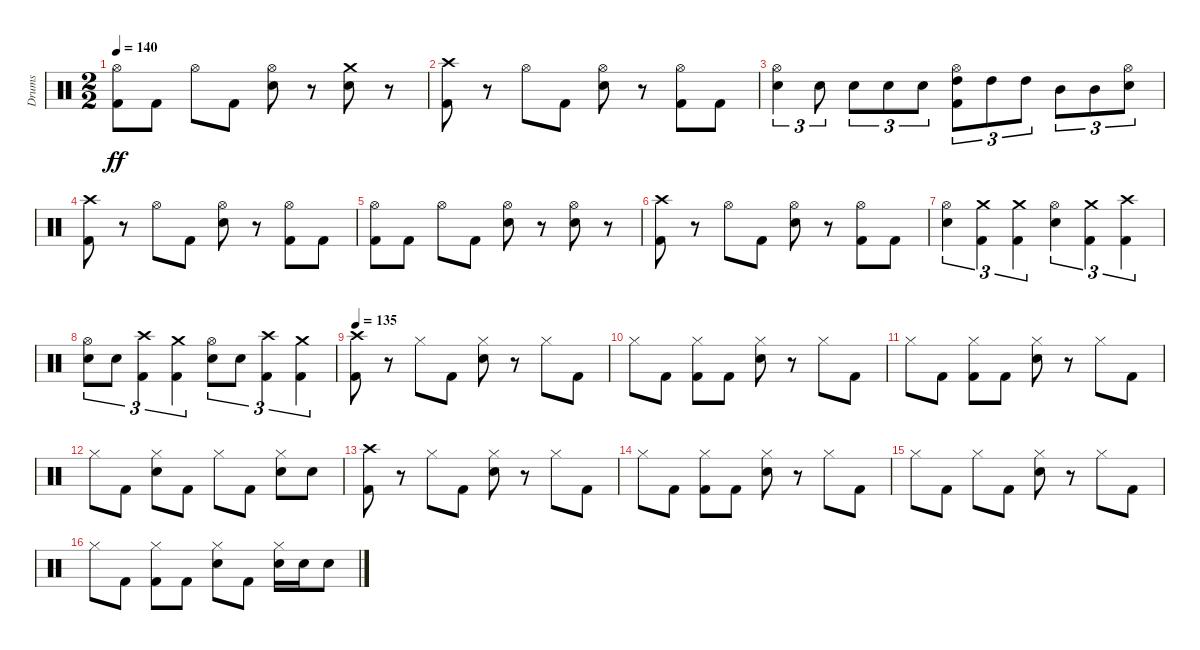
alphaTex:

\track ("Drums" "Drums") {instrument percussion}
\staff {score}
\articulation defaults
\ts (2 2)
\tempo 140
\clef neutral
\ks c
("Hi-Hat (open)" "Kick (hit) 2").8{dy ff} "Kick (hit) 2".8 "Hi-Hat (open)".8 "Kick (hit) 2".8 ("Hi-Hat (open)" "Snare (hit) 2").8 r.8 ("Crash medium (hit)" "Snare (hit) 2").8 r.8 |
("Crash high (hit)" "Kick (hit) 2").8 r.8 "Hi-Hat (open)".8 "Kick (hit) 2".8 ("Hi-Hat (open)" "Snare (hit) 2").8 r.8 ("Hi-Hat (open)" "Kick (hit) 2").8 "Kick (hit) 2".8 |
("Hi-Hat (open)" "Snare (hit) 2").4{tu (3 2)} "Snare (hit) 2".8{tu (3 2)} "Snare (hit) 2".8{tu (3 2)} "Snare (hit) 2".8{tu (3 2)} "Snare (hit) 2".8{tu (3 2)} ("Hi-Hat (open)" "High Tom (hit)" "Kick (hit) 2").8{tu (3 2)} "High Tom (hit)".8{tu (3 2)} "High Tom (hit)".8{tu (3 2)} "Mid Tom (hit)".8{tu (3 2)} "Mid Tom (hit)".8{tu (3 2)} ("Hi-Hat (open)" "Snare (hit) 2").8{tu (3 2)} |
("Crash high (hit)" "Kick (hit) 2").8 r.8 "Hi-Hat (open)".8 "Kick (hit) 2".8 ("Hi-Hat (open)" "Snare (hit) 2").8 r.8 ("Hi-Hat (open)" "Kick (hit) 2").8 "Kick (hit) 2".8 |
("Hi-Hat (open)" "Kick (hit) 2").8 "Kick (hit) 2".8 "Hi-Hat (open)".8 "Kick (hit) 2".8 ("Hi-Hat (open)" "Snare (hit) 2").8 r.8 ("Hi-Hat (open)" "Snare (hit) 2").8 r.8 |
("Crash high (hit)" "Kick (hit) 2").8 r.8 "Hi-Hat (open)".8 "Kick (hit) 2".8 ("Hi-Hat (open)" "Snare (hit) 2").8 r.8 ("Hi-Hat (open)" "Kick (hit) 2").8 "Kick (hit) 2".8 |
("Hi-Hat (open)" "Snare (hit) 2").4{tu (3 2)} ("Crash medium (hit)" "Kick (hit) 2").4{tu (3 2)} ("Crash medium (hit)" "Kick (hit) 2").4{tu (3 2)} ("Hi-Hat (open)" "Snare (hit) 2").4{tu (3 2)} ("Crash medium (hit)" "Kick (hit) 2").4{tu (3 2)} ("Crash high (hit)" "Kick (hit) 2").4{tu (3 2)} |
("Hi-Hat (open)" "Snare (hit) 2").8{tu (3 2)} "Snare (hit) 2".8{tu (3 2)} ("Crash high (hit)" "Kick (hit) 2").4{tu (3 2)} ("Crash medium (hit)" "Kick (hit) 2").4{tu (3 2)} ("Hi-Hat (open)" "Snare (hit) 2").8{tu (3 2)} "Snare (hit) 2".8{tu (3 2)} ("Crash high (hit)" "Kick (hit) 2").4{tu (3 2)} ("Crash medium (hit)" "Kick (hit) 2").4{tu (3 2)} |
\tempo 135
("Crash high (hit)" "Kick (hit) 2").8 r.8 "Hi-Hat (closed)".8 "Kick (hit) 2".8 ("Hi-Hat (closed)" "Snare (hit) 2").8 r.8 "Hi-Hat (closed)".8 "Kick (hit) 2".8 |
"Hi-Hat (closed)".8 "Kick (hit) 2".8 ("Hi-Hat (closed)" "Kick (hit) 2").8 "Kick (hit) 2".8 ("Hi-Hat (closed)" "Snare (hit) 2").8 r.8 "Hi-Hat (closed)".8 "Kick (hit) 2".8 |
"Hi-Hat (closed)".8 "Kick (hit) 2".8 ("Hi-Hat (closed)" "Kick (hit) 2").8 "Kick (hit) 2".8 ("Hi-Hat (closed)" "Snare (hit) 2").8 r.8 "Hi-Hat (closed)".8 "Kick (hit) 2".8 |
"Hi-Hat (closed)".8 "Kick (hit) 2".8 ("Hi-Hat (closed)" "Snare (hit) 2").8 "Kick (hit) 2".8 "Hi-Hat (closed)".8 "Kick (hit) 2".8 ("Hi-Hat (closed)" "Snare (hit) 2").8 "Snare (hit) 2".8 |
("Crash high (hit)" "Kick (hit) 2").8 r.8 "Hi-Hat (closed)".8 "Kick (hit) 2".8 ("Hi-Hat (closed)" "Snare (hit) 2").8 r.8 "Hi-Hat (closed)".8 "Kick (hit) 2".8 |
"Hi-Hat (closed)".8 "Kick (hit) 2".8 ("Hi-Hat (closed)" "Kick (hit) 2").8 "Kick (hit) 2".8 ("Hi-Hat (closed)" "Snare (hit) 2").8 r.8 "Hi-Hat (closed)".8 "Kick (hit) 2".8 |
"Hi-Hat (closed)".8 "Kick (hit) 2".8 "Hi-Hat (closed)".8 "Kick (hit) 2".8 ("Hi-Hat (closed)" "Snare (hit) 2").8 r.8 "Hi-Hat (closed)".8 "Kick (hit) 2".8 |
"Hi-Hat (closed)".8 "Kick (hit) 2".8 ("Hi-Hat (closed)" "Kick (hit) 2").8 "Kick (hit) 2".8 ("Hi-Hat (closed)" "Snare (hit) 2").8 "Kick (hit) 2".8 ("Hi-Hat (closed)" "Snare (hit) 2").16 "Snare (hit) 2".16 "Snare (hit) 2".8
